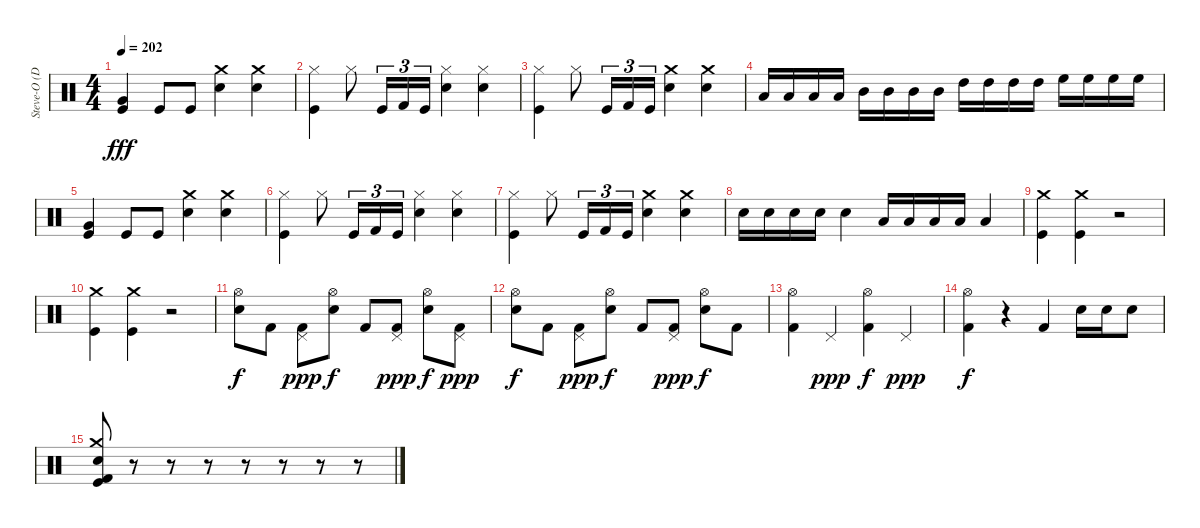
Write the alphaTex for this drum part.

\track ("Steve-O (Drums)" "Steve-O (D") {instrument percussion}
\staff {score}
\articulation defaults
\ts (4 4)
\tempo 202
\clef neutral
\ks c
("Kick (hit)" "Very Low Tom (hit)").4{dy fff} "Kick (hit)".8 "Kick (hit)".8 ("Crash medium (hit)" "Snare (hit) 2").4 ("Crash medium (hit)" "Snare (hit) 2").4 |
("Kick (hit)" "Hi-Hat (closed)").4 "Hi-Hat (closed)".8 "Kick (hit)".16{tu (3 2)} "Kick (hit) 2".16{tu (3 2)} "Kick (hit)".16{tu (3 2)} ("Hi-Hat (closed)" "Snare (hit) 2").4 ("Snare (hit) 2" "Hi-Hat (closed)").4 |
("Hi-Hat (closed)" "Kick (hit)").4 "Hi-Hat (closed)".8 "Kick (hit)".16{tu (3 2)} "Kick (hit) 2".16{tu (3 2)} "Kick (hit)".16{tu (3 2)} ("Crash medium (hit)" "Snare (hit) 2").4 ("Crash medium (hit)" "Snare (hit) 2").4 |
"Low Tom (hit)".16 "Low Tom (hit)".16 "Low Tom (hit)".16 "Low Tom (hit)".16 "Mid Tom (hit)".16 "Mid Tom (hit)".16 "Mid Tom (hit)".16 "Mid Tom (hit)".16 "High Tom (hit)".16 "High Tom (hit)".16 "High Tom (hit)".16 "High Tom (hit)".16 "High Floor Tom (hit)".16 "High Floor Tom (hit)".16 "High Floor Tom (hit)".16 "High Floor Tom (hit)".16 |
("Kick (hit)" "Very Low Tom (hit)").4 "Kick (hit)".8 "Kick (hit)".8 ("Crash medium (hit)" "Snare (hit) 2").4 ("Crash medium (hit)" "Snare (hit) 2").4 |
("Kick (hit)" "Hi-Hat (closed)").4 "Hi-Hat (closed)".8 "Kick (hit)".16{tu (3 2)} "Kick (hit) 2".16{tu (3 2)} "Kick (hit)".16{tu (3 2)} ("Snare (hit) 2" "Hi-Hat (closed)").4 ("Snare (hit) 2" "Hi-Hat (closed)").4 |
("Hi-Hat (closed)" "Kick (hit)").4 "Hi-Hat (closed)".8 "Kick (hit)".16{tu (3 2)} "Kick (hit) 2".16{tu (3 2)} "Kick (hit)".16{tu (3 2)} ("Snare (hit) 2" "Crash medium (hit)").4 ("Snare (hit) 2" "Crash medium (hit)").4 |
"Snare (hit) 2".16 "Snare (hit) 2".16 "Snare (hit) 2".16 "Snare (hit) 2".16 "Snare (hit) 2".4 "Low Tom (hit)".16 "Low Tom (hit)".16 "Low Tom (hit)".16 "Low Tom (hit)".16 "Low Tom (hit)".4 |
("Crash medium (hit)" "Kick (hit)").4 ("Kick (hit)" "Crash medium (hit)").4 r.2 |
("Kick (hit)" "Crash medium (hit)").4 ("Kick (hit)" "Crash medium (hit)").4 r.2 |
("Hi-Hat (open)" "Electric Snare (hit)").8{dy f} "Kick (hit) 2".8 ("Pedal Hi-Hat (hit)" "Kick (hit) 2").8{dy ppp} ("Hi-Hat (open)" "Electric Snare (hit)").8{dy f} "Kick (hit) 2".8 ("Pedal Hi-Hat (hit)" "Kick (hit) 2").8{dy ppp} ("Hi-Hat (open)" "Electric Snare (hit)").8{dy f} ("Pedal Hi-Hat (hit)" "Kick (hit) 2").8{dy ppp} |
("Hi-Hat (open)" "Electric Snare (hit)").8{dy f} "Kick (hit) 2".8 ("Pedal Hi-Hat (hit)" "Kick (hit) 2").8{dy ppp} ("Hi-Hat (open)" "Electric Snare (hit)").8{dy f} "Kick (hit) 2".8 ("Pedal Hi-Hat (hit)" "Kick (hit) 2").8{dy ppp} ("Hi-Hat (open)" "Electric Snare (hit)").8{dy f} "Kick (hit) 2".8 |
("Hi-Hat (open)" "Kick (hit) 2").4 "Pedal Hi-Hat (hit)".4{dy ppp} ("Hi-Hat (open)" "Kick (hit) 2").4{dy f} "Pedal Hi-Hat (hit)".4{dy ppp} |
("Hi-Hat (open)" "Kick (hit) 2").4{dy f} r.4 "Kick (hit) 2".4 "Electric Snare (hit)".16 "Electric Snare (hit)".16 "Electric Snare (hit)".8 |
("Crash medium (hit)" "Electric Snare (hit)" "Kick (hit)" "Kick (hit) 2").8 r.8 r.8 r.8 r.8 r.8 r.8 r.8
